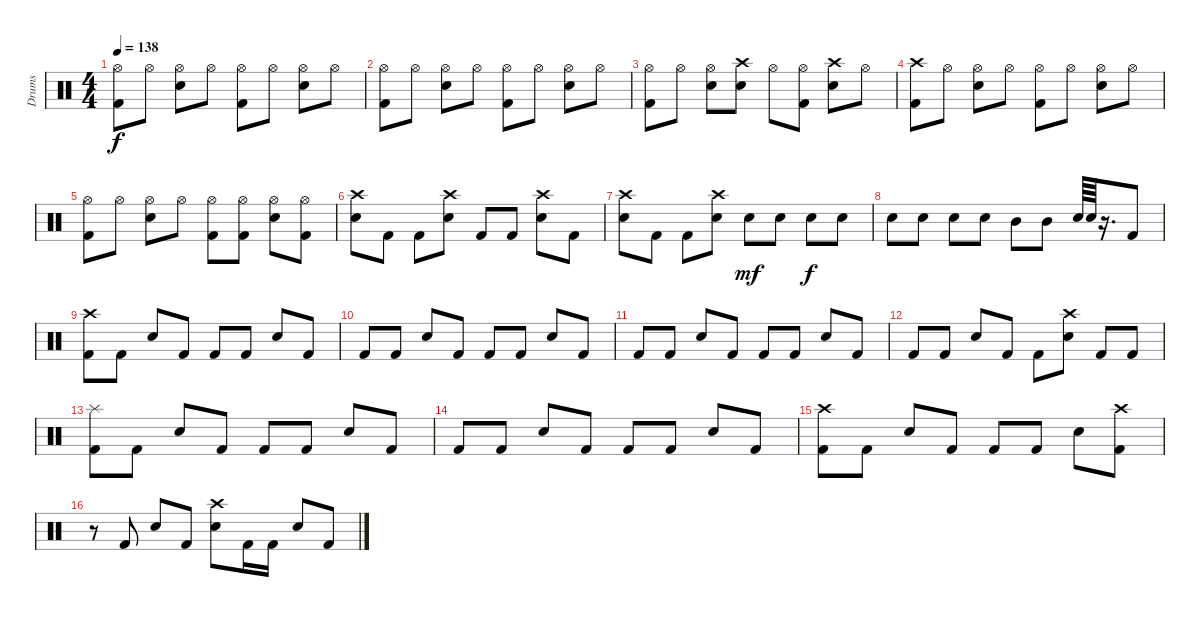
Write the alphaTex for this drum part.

\track ("Drums" "Drums") {instrument percussion}
\staff {score}
\articulation defaults
\ts (4 4)
\tempo 138
\clef neutral
\ks c
("Hi-Hat (open)" "Kick (hit) 2").8{dy f} "Hi-Hat (open)".8 ("Hi-Hat (open)" "Snare (hit) 2").8 "Hi-Hat (open)".8 ("Hi-Hat (open)" "Kick (hit) 2").8 "Hi-Hat (open)".8 ("Hi-Hat (open)" "Snare (hit) 2").8 "Hi-Hat (open)".8 |
("Hi-Hat (open)" "Kick (hit) 2").8 "Hi-Hat (open)".8 ("Hi-Hat (open)" "Snare (hit) 2").8 "Hi-Hat (open)".8 ("Hi-Hat (open)" "Kick (hit) 2").8 "Hi-Hat (open)".8 ("Hi-Hat (open)" "Snare (hit) 2").8 "Hi-Hat (open)".8 |
("Hi-Hat (open)" "Kick (hit) 2").8 "Hi-Hat (open)".8 ("Hi-Hat (open)" "Snare (hit) 2").8 ("Crash high (hit)" "Snare (hit) 2").8 "Hi-Hat (open)".8 ("Hi-Hat (open)" "Kick (hit) 2").8 ("Crash high (hit)" "Snare (hit) 2").8 "Hi-Hat (open)".8 |
("Crash high (hit)" "Kick (hit) 2").8 "Hi-Hat (open)".8 ("Hi-Hat (open)" "Snare (hit) 2").8 "Hi-Hat (open)".8 ("Hi-Hat (open)" "Kick (hit) 2").8 "Hi-Hat (open)".8 ("Hi-Hat (open)" "Snare (hit) 2").8 "Hi-Hat (open)".8 |
("Hi-Hat (open)" "Kick (hit) 2").8 "Hi-Hat (open)".8 ("Hi-Hat (open)" "Snare (hit) 2").8 "Hi-Hat (open)".8 ("Hi-Hat (open)" "Kick (hit) 2").8 ("Hi-Hat (open)" "Kick (hit) 2").8 ("Hi-Hat (open)" "Snare (hit) 2").8 ("Hi-Hat (open)" "Kick (hit) 2").8 |
("Crash high (hit)" "Snare (hit) 2").8 "Kick (hit) 2".8 "Kick (hit) 2".8 ("Crash high (hit)" "Snare (hit) 2").8 "Kick (hit) 2".8 "Kick (hit) 2".8 ("Crash high (hit)" "Snare (hit) 2").8 "Kick (hit) 2".8 |
("Crash high (hit)" "Snare (hit) 2").8 "Kick (hit) 2".8 "Kick (hit) 2".8 ("Crash high (hit)" "Snare (hit) 2").8 "Snare (hit) 2".8{dy mf} "Snare (hit) 2".8 "Snare (hit) 2".8{dy f} "Snare (hit) 2".8 |
"Snare (hit) 2".8 "Snare (hit) 2".8 "Snare (hit) 2".8 "Snare (hit) 2".8 "Mid Tom (hit)".8 "Mid Tom (hit)".8 "Snare (hit) 2".64 "Snare (hit) 2".64 r.16{d} "Kick (hit) 2".8 |
("Crash high (hit)" "Kick (hit) 2").8 "Kick (hit) 2".8 "Snare (hit) 2".8 "Kick (hit) 2".8 "Kick (hit) 2".8 "Kick (hit) 2".8 "Snare (hit) 2".8 "Kick (hit) 2".8 |
"Kick (hit) 2".8 "Kick (hit) 2".8 "Snare (hit) 2".8 "Kick (hit) 2".8 "Kick (hit) 2".8 "Kick (hit) 2".8 "Snare (hit) 2".8 "Kick (hit) 2".8 |
"Kick (hit) 2".8 "Kick (hit) 2".8 "Snare (hit) 2".8 "Kick (hit) 2".8 "Kick (hit) 2".8 "Kick (hit) 2".8 "Snare (hit) 2".8 "Kick (hit) 2".8 |
"Kick (hit) 2".8 "Kick (hit) 2".8 "Snare (hit) 2".8 "Kick (hit) 2".8 "Kick (hit) 2".8 ("Crash high (hit)" "Snare (hit) 2").8 "Kick (hit) 2".8 "Kick (hit) 2".8 |
("Splash (hit)" "Kick (hit) 2").8 "Kick (hit) 2".8 "Snare (hit) 2".8 "Kick (hit) 2".8 "Kick (hit) 2".8 "Kick (hit) 2".8 "Snare (hit) 2".8 "Kick (hit) 2".8 |
"Kick (hit) 2".8 "Kick (hit) 2".8 "Snare (hit) 2".8 "Kick (hit) 2".8 "Kick (hit) 2".8 "Kick (hit) 2".8 "Snare (hit) 2".8 "Kick (hit) 2".8 |
("Crash high (hit)" "Kick (hit) 2").8 "Kick (hit) 2".8 "Snare (hit) 2".8 "Kick (hit) 2".8 "Kick (hit) 2".8 "Kick (hit) 2".8 "Snare (hit) 2".8 ("Crash high (hit)" "Kick (hit) 2").8 |
r.8 "Kick (hit) 2".8 "Snare (hit) 2".8 "Kick (hit) 2".8 ("Crash high (hit)" "Snare (hit) 2").8 "Kick (hit) 2".16 "Kick (hit) 2".16 "Snare (hit) 2".8 "Kick (hit) 2".8
